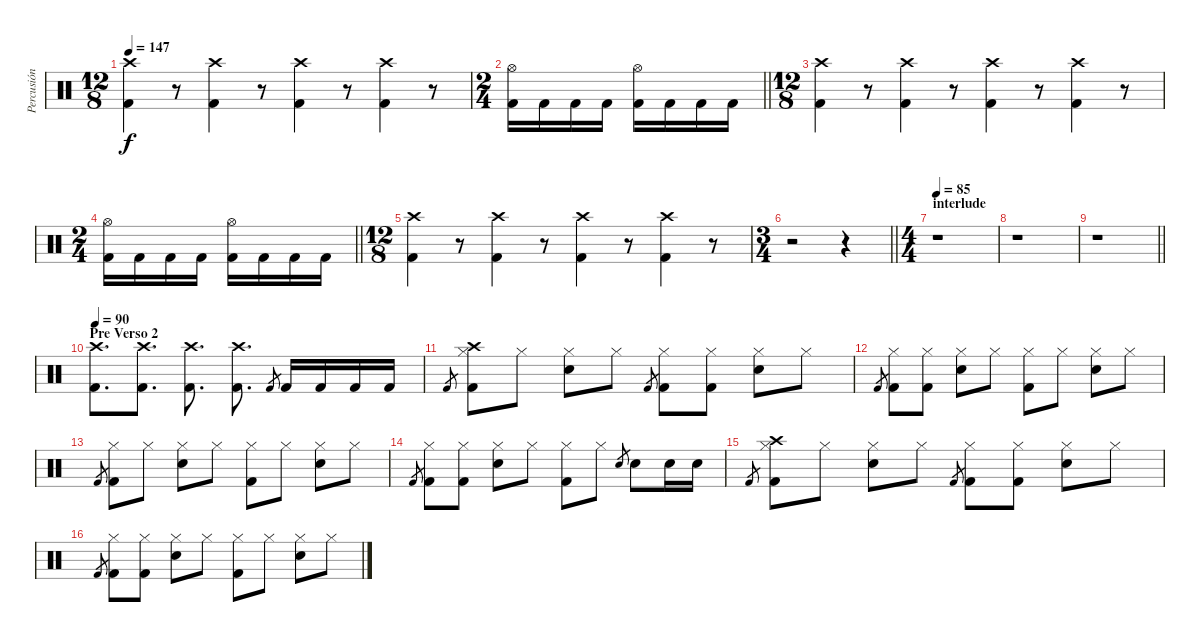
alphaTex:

\track ("Percusión" "Percusión") {instrument percussion}
\staff {score}
\articulation defaults
\ts (12 8)
\tempo 147
\clef neutral
\ks c
("Crash high (hit)" "Kick (hit) 2").4{dy f} r.8 ("Crash high (hit)" "Kick (hit) 2").4 r.8 ("Crash high (hit)" "Kick (hit) 2").4 r.8 ("Crash high (hit)" "Kick (hit) 2").4 r.8 |
\ts (2 4)
\barLineRight lightlight
("Hi-Hat (open)" "Kick (hit) 2").16 "Kick (hit) 2".16 "Kick (hit) 2".16 "Kick (hit) 2".16 ("Hi-Hat (open)" "Kick (hit) 2").16 "Kick (hit) 2".16 "Kick (hit) 2".16 "Kick (hit) 2".16 |
\ts (12 8)
("Crash high (hit)" "Kick (hit) 2").4 r.8 ("Crash high (hit)" "Kick (hit) 2").4 r.8 ("Crash high (hit)" "Kick (hit) 2").4 r.8 ("Crash high (hit)" "Kick (hit) 2").4 r.8 |
\ts (2 4)
\barLineRight lightlight
("Hi-Hat (open)" "Kick (hit) 2").16 "Kick (hit) 2".16 "Kick (hit) 2".16 "Kick (hit) 2".16 ("Hi-Hat (open)" "Kick (hit) 2").16 "Kick (hit) 2".16 "Kick (hit) 2".16 "Kick (hit) 2".16 |
\ts (12 8)
("Crash high (hit)" "Kick (hit) 2").4 r.8 ("Crash high (hit)" "Kick (hit) 2").4 r.8 ("Crash high (hit)" "Kick (hit) 2").4 r.8 ("Crash high (hit)" "Kick (hit) 2").4 r.8 |
\ts (3 4)
\barLineRight lightlight
r.2 r.4 |
\ts (4 4)
\section ("" "interlude")
\tempo 85
r.1 |
r.1 |
\barLineRight lightlight
r.1 |
\section ("" "Pre Verso 2")
\tempo 90
("Crash high (hit)" "Kick (hit) 2").8{d} ("Crash high (hit)" "Kick (hit) 2").8{d} ("Crash high (hit)" "Kick (hit) 2").8{d} ("Crash high (hit)" "Kick (hit) 2").8{d} "Kick (hit) 2".8{gr} "Kick (hit) 2".16 "Kick (hit) 2".16 "Kick (hit) 2".16 "Kick (hit) 2".16 |
"Kick (hit) 2".8{gr} ("Hi-Hat (closed)" "Crash high (hit)" "Kick (hit) 2").8 "Hi-Hat (closed)".8 ("Hi-Hat (closed)" "Snare (hit) 2").8 "Hi-Hat (closed)".8 "Kick (hit) 2".8{gr} ("Hi-Hat (closed)" "Kick (hit) 2").8 ("Hi-Hat (closed)" "Kick (hit) 2").8 ("Hi-Hat (closed)" "Snare (hit) 2").8 "Hi-Hat (closed)".8 |
"Kick (hit) 2".8{gr} ("Hi-Hat (closed)" "Kick (hit) 2").8 ("Hi-Hat (closed)" "Kick (hit) 2").8 ("Hi-Hat (closed)" "Snare (hit) 2").8 "Hi-Hat (closed)".8 ("Hi-Hat (closed)" "Kick (hit) 2").8 "Hi-Hat (closed)".8 ("Hi-Hat (closed)" "Snare (hit) 2").8 "Hi-Hat (closed)".8 |
"Kick (hit) 2".8{gr} ("Hi-Hat (closed)" "Kick (hit) 2").8 "Hi-Hat (closed)".8 ("Hi-Hat (closed)" "Snare (hit) 2").8 "Hi-Hat (closed)".8 ("Hi-Hat (closed)" "Kick (hit) 2").8 "Hi-Hat (closed)".8 ("Hi-Hat (closed)" "Snare (hit) 2").8 "Hi-Hat (closed)".8 |
"Kick (hit) 2".8{gr} ("Hi-Hat (closed)" "Kick (hit) 2").8 ("Hi-Hat (closed)" "Kick (hit) 2").8 ("Hi-Hat (closed)" "Snare (hit) 2").8 "Hi-Hat (closed)".8 ("Hi-Hat (closed)" "Kick (hit) 2").8 "Hi-Hat (closed)".8 "Snare (hit) 2".8{gr} "Snare (hit) 2".8 "Snare (hit) 2".16 "Snare (hit) 2".16 |
"Kick (hit) 2".8{gr} ("Hi-Hat (closed)" "Crash high (hit)" "Kick (hit) 2").8 "Hi-Hat (closed)".8 ("Hi-Hat (closed)" "Snare (hit) 2").8 "Hi-Hat (closed)".8 "Kick (hit) 2".8{gr} ("Hi-Hat (closed)" "Kick (hit) 2").8 ("Hi-Hat (closed)" "Kick (hit) 2").8 ("Hi-Hat (closed)" "Snare (hit) 2").8 "Hi-Hat (closed)".8 |
"Kick (hit) 2".8{gr} ("Hi-Hat (closed)" "Kick (hit) 2").8 ("Hi-Hat (closed)" "Kick (hit) 2").8 ("Hi-Hat (closed)" "Snare (hit) 2").8 "Hi-Hat (closed)".8 ("Hi-Hat (closed)" "Kick (hit) 2").8 "Hi-Hat (closed)".8 ("Hi-Hat (closed)" "Snare (hit) 2").8 "Hi-Hat (closed)".8
